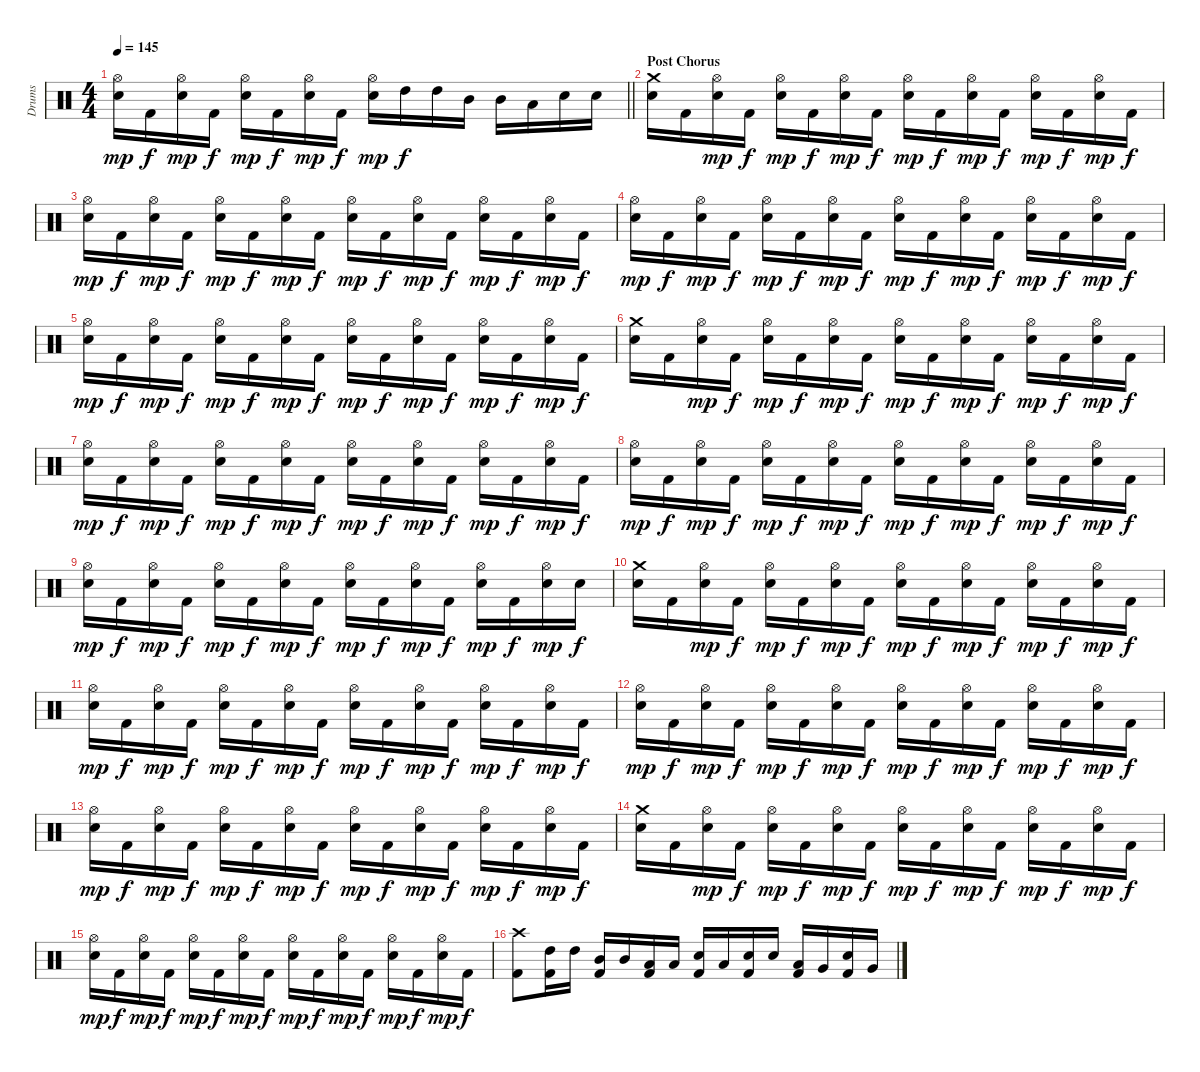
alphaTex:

\track ("Drums" "Drums") {instrument percussion}
\staff {score}
\articulation defaults
\ts (4 4)
\tempo 145
\clef neutral
\barLineRight lightlight
\ks c
("Hi-Hat (open)" "Snare (hit) 2").16{dy mp} "Kick (hit) 2".16{dy f} ("Hi-Hat (open)" "Snare (hit) 2").16{dy mp} "Kick (hit) 2".16{dy f} ("Hi-Hat (open)" "Snare (hit) 2").16{dy mp} "Kick (hit) 2".16{dy f} ("Hi-Hat (open)" "Snare (hit) 2").16{dy mp} "Kick (hit) 2".16{dy f} ("Hi-Hat (open)" "Snare (hit) 2").16{dy mp} "High Tom (hit)".16{dy f} "High Tom (hit)".16 "Mid Tom (hit)".16 "Mid Tom (hit)".16 "Low Tom (hit)".16 "Snare (hit) 2".16 "Snare (hit) 2".16 |
\section ("" "Post Chorus")
("Crash medium (hit)" "Snare (hit) 2").16 "Kick (hit) 2".16 ("Hi-Hat (open)" "Snare (hit) 2").16{dy mp} "Kick (hit) 2".16{dy f} ("Hi-Hat (open)" "Snare (hit) 2").16{dy mp} "Kick (hit) 2".16{dy f} ("Hi-Hat (open)" "Snare (hit) 2").16{dy mp} "Kick (hit) 2".16{dy f} ("Hi-Hat (open)" "Snare (hit) 2").16{dy mp} "Kick (hit) 2".16{dy f} ("Hi-Hat (open)" "Snare (hit) 2").16{dy mp} "Kick (hit) 2".16{dy f} ("Hi-Hat (open)" "Snare (hit) 2").16{dy mp} "Kick (hit) 2".16{dy f} ("Hi-Hat (open)" "Snare (hit) 2").16{dy mp} "Kick (hit) 2".16{dy f} |
("Hi-Hat (open)" "Snare (hit) 2").16{dy mp} "Kick (hit) 2".16{dy f} ("Hi-Hat (open)" "Snare (hit) 2").16{dy mp} "Kick (hit) 2".16{dy f} ("Hi-Hat (open)" "Snare (hit) 2").16{dy mp} "Kick (hit) 2".16{dy f} ("Hi-Hat (open)" "Snare (hit) 2").16{dy mp} "Kick (hit) 2".16{dy f} ("Hi-Hat (open)" "Snare (hit) 2").16{dy mp} "Kick (hit) 2".16{dy f} ("Hi-Hat (open)" "Snare (hit) 2").16{dy mp} "Kick (hit) 2".16{dy f} ("Hi-Hat (open)" "Snare (hit) 2").16{dy mp} "Kick (hit) 2".16{dy f} ("Hi-Hat (open)" "Snare (hit) 2").16{dy mp} "Kick (hit) 2".16{dy f} |
("Hi-Hat (open)" "Snare (hit) 2").16{dy mp} "Kick (hit) 2".16{dy f} ("Hi-Hat (open)" "Snare (hit) 2").16{dy mp} "Kick (hit) 2".16{dy f} ("Hi-Hat (open)" "Snare (hit) 2").16{dy mp} "Kick (hit) 2".16{dy f} ("Hi-Hat (open)" "Snare (hit) 2").16{dy mp} "Kick (hit) 2".16{dy f} ("Hi-Hat (open)" "Snare (hit) 2").16{dy mp} "Kick (hit) 2".16{dy f} ("Hi-Hat (open)" "Snare (hit) 2").16{dy mp} "Kick (hit) 2".16{dy f} ("Hi-Hat (open)" "Snare (hit) 2").16{dy mp} "Kick (hit) 2".16{dy f} ("Hi-Hat (open)" "Snare (hit) 2").16{dy mp} "Kick (hit) 2".16{dy f} |
("Hi-Hat (open)" "Snare (hit) 2").16{dy mp} "Kick (hit) 2".16{dy f} ("Hi-Hat (open)" "Snare (hit) 2").16{dy mp} "Kick (hit) 2".16{dy f} ("Hi-Hat (open)" "Snare (hit) 2").16{dy mp} "Kick (hit) 2".16{dy f} ("Hi-Hat (open)" "Snare (hit) 2").16{dy mp} "Kick (hit) 2".16{dy f} ("Hi-Hat (open)" "Snare (hit) 2").16{dy mp} "Kick (hit) 2".16{dy f} ("Hi-Hat (open)" "Snare (hit) 2").16{dy mp} "Kick (hit) 2".16{dy f} ("Hi-Hat (open)" "Snare (hit) 2").16{dy mp} "Kick (hit) 2".16{dy f} ("Hi-Hat (open)" "Snare (hit) 2").16{dy mp} "Kick (hit) 2".16{dy f} |
("Crash medium (hit)" "Snare (hit) 2").16 "Kick (hit) 2".16 ("Hi-Hat (open)" "Snare (hit) 2").16{dy mp} "Kick (hit) 2".16{dy f} ("Hi-Hat (open)" "Snare (hit) 2").16{dy mp} "Kick (hit) 2".16{dy f} ("Hi-Hat (open)" "Snare (hit) 2").16{dy mp} "Kick (hit) 2".16{dy f} ("Hi-Hat (open)" "Snare (hit) 2").16{dy mp} "Kick (hit) 2".16{dy f} ("Hi-Hat (open)" "Snare (hit) 2").16{dy mp} "Kick (hit) 2".16{dy f} ("Hi-Hat (open)" "Snare (hit) 2").16{dy mp} "Kick (hit) 2".16{dy f} ("Hi-Hat (open)" "Snare (hit) 2").16{dy mp} "Kick (hit) 2".16{dy f} |
("Hi-Hat (open)" "Snare (hit) 2").16{dy mp} "Kick (hit) 2".16{dy f} ("Hi-Hat (open)" "Snare (hit) 2").16{dy mp} "Kick (hit) 2".16{dy f} ("Hi-Hat (open)" "Snare (hit) 2").16{dy mp} "Kick (hit) 2".16{dy f} ("Hi-Hat (open)" "Snare (hit) 2").16{dy mp} "Kick (hit) 2".16{dy f} ("Hi-Hat (open)" "Snare (hit) 2").16{dy mp} "Kick (hit) 2".16{dy f} ("Hi-Hat (open)" "Snare (hit) 2").16{dy mp} "Kick (hit) 2".16{dy f} ("Hi-Hat (open)" "Snare (hit) 2").16{dy mp} "Kick (hit) 2".16{dy f} ("Hi-Hat (open)" "Snare (hit) 2").16{dy mp} "Kick (hit) 2".16{dy f} |
("Hi-Hat (open)" "Snare (hit) 2").16{dy mp} "Kick (hit) 2".16{dy f} ("Hi-Hat (open)" "Snare (hit) 2").16{dy mp} "Kick (hit) 2".16{dy f} ("Hi-Hat (open)" "Snare (hit) 2").16{dy mp} "Kick (hit) 2".16{dy f} ("Hi-Hat (open)" "Snare (hit) 2").16{dy mp} "Kick (hit) 2".16{dy f} ("Hi-Hat (open)" "Snare (hit) 2").16{dy mp} "Kick (hit) 2".16{dy f} ("Hi-Hat (open)" "Snare (hit) 2").16{dy mp} "Kick (hit) 2".16{dy f} ("Hi-Hat (open)" "Snare (hit) 2").16{dy mp} "Kick (hit) 2".16{dy f} ("Hi-Hat (open)" "Snare (hit) 2").16{dy mp} "Kick (hit) 2".16{dy f} |
("Hi-Hat (open)" "Snare (hit) 2").16{dy mp} "Kick (hit) 2".16{dy f} ("Hi-Hat (open)" "Snare (hit) 2").16{dy mp} "Kick (hit) 2".16{dy f} ("Hi-Hat (open)" "Snare (hit) 2").16{dy mp} "Kick (hit) 2".16{dy f} ("Hi-Hat (open)" "Snare (hit) 2").16{dy mp} "Kick (hit) 2".16{dy f} ("Hi-Hat (open)" "Snare (hit) 2").16{dy mp} "Kick (hit) 2".16{dy f} ("Hi-Hat (open)" "Snare (hit) 2").16{dy mp} "Kick (hit) 2".16{dy f} ("Hi-Hat (open)" "Snare (hit) 2").16{dy mp} "Kick (hit) 2".16{dy f} ("Hi-Hat (open)" "Snare (hit) 2").16{dy mp} "Snare (hit) 2".16{dy f} |
("Crash medium (hit)" "Snare (hit) 2").16 "Kick (hit) 2".16 ("Hi-Hat (open)" "Snare (hit) 2").16{dy mp} "Kick (hit) 2".16{dy f} ("Hi-Hat (open)" "Snare (hit) 2").16{dy mp} "Kick (hit) 2".16{dy f} ("Hi-Hat (open)" "Snare (hit) 2").16{dy mp} "Kick (hit) 2".16{dy f} ("Hi-Hat (open)" "Snare (hit) 2").16{dy mp} "Kick (hit) 2".16{dy f} ("Hi-Hat (open)" "Snare (hit) 2").16{dy mp} "Kick (hit) 2".16{dy f} ("Hi-Hat (open)" "Snare (hit) 2").16{dy mp} "Kick (hit) 2".16{dy f} ("Hi-Hat (open)" "Snare (hit) 2").16{dy mp} "Kick (hit) 2".16{dy f} |
("Hi-Hat (open)" "Snare (hit) 2").16{dy mp} "Kick (hit) 2".16{dy f} ("Hi-Hat (open)" "Snare (hit) 2").16{dy mp} "Kick (hit) 2".16{dy f} ("Hi-Hat (open)" "Snare (hit) 2").16{dy mp} "Kick (hit) 2".16{dy f} ("Hi-Hat (open)" "Snare (hit) 2").16{dy mp} "Kick (hit) 2".16{dy f} ("Hi-Hat (open)" "Snare (hit) 2").16{dy mp} "Kick (hit) 2".16{dy f} ("Hi-Hat (open)" "Snare (hit) 2").16{dy mp} "Kick (hit) 2".16{dy f} ("Hi-Hat (open)" "Snare (hit) 2").16{dy mp} "Kick (hit) 2".16{dy f} ("Hi-Hat (open)" "Snare (hit) 2").16{dy mp} "Kick (hit) 2".16{dy f} |
("Hi-Hat (open)" "Snare (hit) 2").16{dy mp} "Kick (hit) 2".16{dy f} ("Hi-Hat (open)" "Snare (hit) 2").16{dy mp} "Kick (hit) 2".16{dy f} ("Hi-Hat (open)" "Snare (hit) 2").16{dy mp} "Kick (hit) 2".16{dy f} ("Hi-Hat (open)" "Snare (hit) 2").16{dy mp} "Kick (hit) 2".16{dy f} ("Hi-Hat (open)" "Snare (hit) 2").16{dy mp} "Kick (hit) 2".16{dy f} ("Hi-Hat (open)" "Snare (hit) 2").16{dy mp} "Kick (hit) 2".16{dy f} ("Hi-Hat (open)" "Snare (hit) 2").16{dy mp} "Kick (hit) 2".16{dy f} ("Hi-Hat (open)" "Snare (hit) 2").16{dy mp} "Kick (hit) 2".16{dy f} |
("Hi-Hat (open)" "Snare (hit) 2").16{dy mp} "Kick (hit) 2".16{dy f} ("Hi-Hat (open)" "Snare (hit) 2").16{dy mp} "Kick (hit) 2".16{dy f} ("Hi-Hat (open)" "Snare (hit) 2").16{dy mp} "Kick (hit) 2".16{dy f} ("Hi-Hat (open)" "Snare (hit) 2").16{dy mp} "Kick (hit) 2".16{dy f} ("Hi-Hat (open)" "Snare (hit) 2").16{dy mp} "Kick (hit) 2".16{dy f} ("Hi-Hat (open)" "Snare (hit) 2").16{dy mp} "Kick (hit) 2".16{dy f} ("Hi-Hat (open)" "Snare (hit) 2").16{dy mp} "Kick (hit) 2".16{dy f} ("Hi-Hat (open)" "Snare (hit) 2").16{dy mp} "Kick (hit) 2".16{dy f} |
("Crash medium (hit)" "Snare (hit) 2").16 "Kick (hit) 2".16 ("Hi-Hat (open)" "Snare (hit) 2").16{dy mp} "Kick (hit) 2".16{dy f} ("Hi-Hat (open)" "Snare (hit) 2").16{dy mp} "Kick (hit) 2".16{dy f} ("Hi-Hat (open)" "Snare (hit) 2").16{dy mp} "Kick (hit) 2".16{dy f} ("Hi-Hat (open)" "Snare (hit) 2").16{dy mp} "Kick (hit) 2".16{dy f} ("Hi-Hat (open)" "Snare (hit) 2").16{dy mp} "Kick (hit) 2".16{dy f} ("Hi-Hat (open)" "Snare (hit) 2").16{dy mp} "Kick (hit) 2".16{dy f} ("Hi-Hat (open)" "Snare (hit) 2").16{dy mp} "Kick (hit) 2".16{dy f} |
("Hi-Hat (open)" "Snare (hit) 2").16{dy mp} "Kick (hit) 2".16{dy f} ("Hi-Hat (open)" "Snare (hit) 2").16{dy mp} "Kick (hit) 2".16{dy f} ("Hi-Hat (open)" "Snare (hit) 2").16{dy mp} "Kick (hit) 2".16{dy f} ("Hi-Hat (open)" "Snare (hit) 2").16{dy mp} "Kick (hit) 2".16{dy f} ("Hi-Hat (open)" "Snare (hit) 2").16{dy mp} "Kick (hit) 2".16{dy f} ("Hi-Hat (open)" "Snare (hit) 2").16{dy mp} "Kick (hit) 2".16{dy f} ("Hi-Hat (open)" "Snare (hit) 2").16{dy mp} "Kick (hit) 2".16{dy f} ("Hi-Hat (open)" "Snare (hit) 2").16{dy mp} "Kick (hit) 2".16{dy f} |
("Crash high (hit)" "Kick (hit) 2").8 ("High Tom (hit)" "Kick (hit) 2").16 "High Tom (hit)".16 ("Mid Tom (hit)" "Kick (hit) 2").16 "Mid Tom (hit)".16 ("Low Tom (hit)" "Kick (hit) 2").16 "Low Tom (hit)".16 ("Snare (hit) 2" "Kick (hit) 2").16 "Low Tom (hit)".16 ("Snare (hit) 2" "Kick (hit) 2").16 "Snare (hit) 2".16 ("Low Tom (hit)" "Kick (hit) 2").16 "Very Low Tom (hit)".16 ("Snare (hit) 2" "Kick (hit) 2").16 "Very Low Tom (hit)".16
